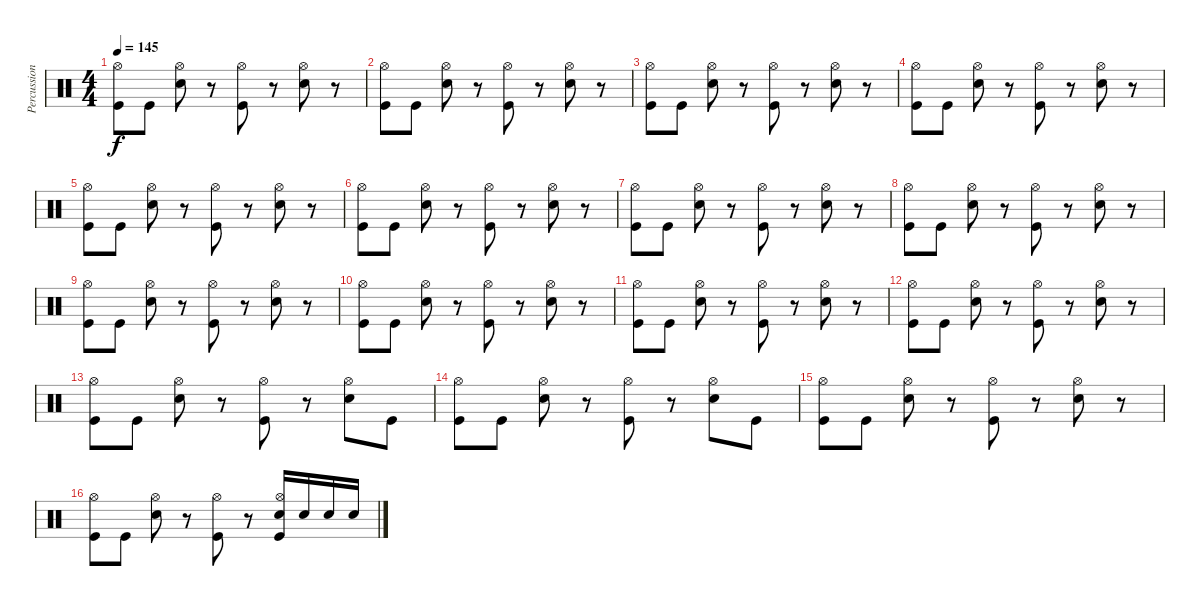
\track ("Percussion" "Percussion") {instrument percussion}
\staff {score}
\articulation defaults
\ts (4 4)
\tempo 145
\clef neutral
\ks c
("Kick (hit)" "Hi-Hat (open)").8{dy f} "Kick (hit)".8 ("Snare (hit) 2" "Hi-Hat (open)").8 r.8 ("Kick (hit)" "Hi-Hat (open)").8 r.8 ("Snare (hit) 2" "Hi-Hat (open)").8 r.8 |
("Kick (hit)" "Hi-Hat (open)").8 "Kick (hit)".8 ("Snare (hit) 2" "Hi-Hat (open)").8 r.8 ("Kick (hit)" "Hi-Hat (open)").8 r.8 ("Snare (hit) 2" "Hi-Hat (open)").8 r.8 |
("Kick (hit)" "Hi-Hat (open)").8 "Kick (hit)".8 ("Snare (hit) 2" "Hi-Hat (open)").8 r.8 ("Kick (hit)" "Hi-Hat (open)").8 r.8 ("Snare (hit) 2" "Hi-Hat (open)").8 r.8 |
("Kick (hit)" "Hi-Hat (open)").8 "Kick (hit)".8 ("Snare (hit) 2" "Hi-Hat (open)").8 r.8 ("Kick (hit)" "Hi-Hat (open)").8 r.8 ("Snare (hit) 2" "Hi-Hat (open)").8 r.8 |
("Kick (hit)" "Hi-Hat (open)").8 "Kick (hit)".8 ("Snare (hit) 2" "Hi-Hat (open)").8 r.8 ("Kick (hit)" "Hi-Hat (open)").8 r.8 ("Snare (hit) 2" "Hi-Hat (open)").8 r.8 |
("Kick (hit)" "Hi-Hat (open)").8 "Kick (hit)".8 ("Snare (hit) 2" "Hi-Hat (open)").8 r.8 ("Kick (hit)" "Hi-Hat (open)").8 r.8 ("Snare (hit) 2" "Hi-Hat (open)").8 r.8 |
("Kick (hit)" "Hi-Hat (open)").8 "Kick (hit)".8 ("Snare (hit) 2" "Hi-Hat (open)").8 r.8 ("Kick (hit)" "Hi-Hat (open)").8 r.8 ("Snare (hit) 2" "Hi-Hat (open)").8 r.8 |
("Kick (hit)" "Hi-Hat (open)").8 "Kick (hit)".8 ("Snare (hit) 2" "Hi-Hat (open)").8 r.8 ("Kick (hit)" "Hi-Hat (open)").8 r.8 ("Snare (hit) 2" "Hi-Hat (open)").8 r.8 |
("Kick (hit)" "Hi-Hat (open)").8 "Kick (hit)".8 ("Snare (hit) 2" "Hi-Hat (open)").8 r.8 ("Kick (hit)" "Hi-Hat (open)").8 r.8 ("Snare (hit) 2" "Hi-Hat (open)").8 r.8 |
("Kick (hit)" "Hi-Hat (open)").8 "Kick (hit)".8 ("Snare (hit) 2" "Hi-Hat (open)").8 r.8 ("Kick (hit)" "Hi-Hat (open)").8 r.8 ("Snare (hit) 2" "Hi-Hat (open)").8 r.8 |
("Kick (hit)" "Hi-Hat (open)").8 "Kick (hit)".8 ("Snare (hit) 2" "Hi-Hat (open)").8 r.8 ("Kick (hit)" "Hi-Hat (open)").8 r.8 ("Snare (hit) 2" "Hi-Hat (open)").8 r.8 |
("Kick (hit)" "Hi-Hat (open)").8 "Kick (hit)".8 ("Snare (hit) 2" "Hi-Hat (open)").8 r.8 ("Kick (hit)" "Hi-Hat (open)").8 r.8 ("Snare (hit) 2" "Hi-Hat (open)").8 r.8 |
("Kick (hit)" "Hi-Hat (open)").8 "Kick (hit)".8 ("Snare (hit) 2" "Hi-Hat (open)").8 r.8 ("Kick (hit)" "Hi-Hat (open)").8 r.8 ("Snare (hit) 2" "Hi-Hat (open)").8 "Kick (hit)".8 |
("Kick (hit)" "Hi-Hat (open)").8 "Kick (hit)".8 ("Snare (hit) 2" "Hi-Hat (open)").8 r.8 ("Kick (hit)" "Hi-Hat (open)").8 r.8 ("Snare (hit) 2" "Hi-Hat (open)").8 "Kick (hit)".8 |
("Kick (hit)" "Hi-Hat (open)").8 "Kick (hit)".8 ("Snare (hit) 2" "Hi-Hat (open)").8 r.8 ("Kick (hit)" "Hi-Hat (open)").8 r.8 ("Snare (hit) 2" "Hi-Hat (open)").8 r.8 |
("Kick (hit)" "Hi-Hat (open)").8 "Kick (hit)".8 ("Snare (hit) 2" "Hi-Hat (open)").8 r.8 ("Kick (hit)" "Hi-Hat (open)").8 r.8 ("Snare (hit) 2" "Kick (hit)" "Hi-Hat (open)").16 "Snare (hit) 2".16 "Snare (hit) 2".16 "Snare (hit) 2".16
